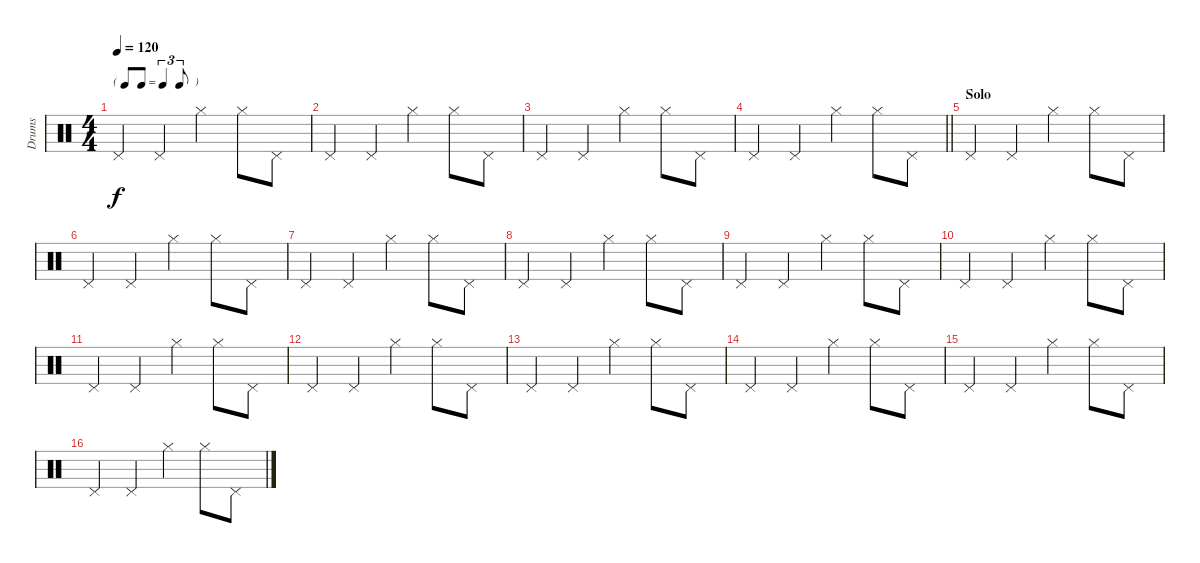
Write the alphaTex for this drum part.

\track ("Drums" "Drums") {instrument percussion}
\staff {score}
\articulation defaults
\ts (4 4)
\tf triplet8th
\tempo 120
\clef neutral
\ks c "Pedal Hi-Hat (hit)".4{dy f} "Pedal Hi-Hat (hit)".4 "Hi-Hat (closed)".4 "Hi-Hat (closed)".8 "Pedal Hi-Hat (hit)".8
|
"Pedal Hi-Hat (hit)".4 "Pedal Hi-Hat (hit)".4 "Hi-Hat (closed)".4 "Hi-Hat (closed)".8 "Pedal Hi-Hat (hit)".8 |
"Pedal Hi-Hat (hit)".4 "Pedal Hi-Hat (hit)".4 "Hi-Hat (closed)".4 "Hi-Hat (closed)".8 "Pedal Hi-Hat (hit)".8 |
\barLineRight lightlight "Pedal Hi-Hat (hit)".4 "Pedal Hi-Hat (hit)".4 "Hi-Hat (closed)".4 "Hi-Hat (closed)".8 "Pedal Hi-Hat (hit)".8
|
\section ("" "Solo")
"Pedal Hi-Hat (hit)".4 "Pedal Hi-Hat (hit)".4 "Hi-Hat (closed)".4 "Hi-Hat (closed)".8 "Pedal Hi-Hat (hit)".8 |
"Pedal Hi-Hat (hit)".4 "Pedal Hi-Hat (hit)".4 "Hi-Hat (closed)".4 "Hi-Hat (closed)".8 "Pedal Hi-Hat (hit)".8 |
"Pedal Hi-Hat (hit)".4 "Pedal Hi-Hat (hit)".4 "Hi-Hat (closed)".4 "Hi-Hat (closed)".8 "Pedal Hi-Hat (hit)".8 |
"Pedal Hi-Hat (hit)".4 "Pedal Hi-Hat (hit)".4 "Hi-Hat (closed)".4 "Hi-Hat (closed)".8 "Pedal Hi-Hat (hit)".8 |
"Pedal Hi-Hat (hit)".4 "Pedal Hi-Hat (hit)".4 "Hi-Hat (closed)".4 "Hi-Hat (closed)".8 "Pedal Hi-Hat (hit)".8 |
"Pedal Hi-Hat (hit)".4 "Pedal Hi-Hat (hit)".4 "Hi-Hat (closed)".4 "Hi-Hat (closed)".8 "Pedal Hi-Hat (hit)".8 |
"Pedal Hi-Hat (hit)".4 "Pedal Hi-Hat (hit)".4 "Hi-Hat (closed)".4 "Hi-Hat (closed)".8 "Pedal Hi-Hat (hit)".8 |
"Pedal Hi-Hat (hit)".4 "Pedal Hi-Hat (hit)".4 "Hi-Hat (closed)".4 "Hi-Hat (closed)".8 "Pedal Hi-Hat (hit)".8 |
"Pedal Hi-Hat (hit)".4 "Pedal Hi-Hat (hit)".4 "Hi-Hat (closed)".4 "Hi-Hat (closed)".8 "Pedal Hi-Hat (hit)".8 |
"Pedal Hi-Hat (hit)".4 "Pedal Hi-Hat (hit)".4 "Hi-Hat (closed)".4 "Hi-Hat (closed)".8 "Pedal Hi-Hat (hit)".8 |
"Pedal Hi-Hat (hit)".4 "Pedal Hi-Hat (hit)".4 "Hi-Hat (closed)".4 "Hi-Hat (closed)".8 "Pedal Hi-Hat (hit)".8 |
"Pedal Hi-Hat (hit)".4 "Pedal Hi-Hat (hit)".4 "Hi-Hat (closed)".4 "Hi-Hat (closed)".8 "Pedal Hi-Hat (hit)".8
